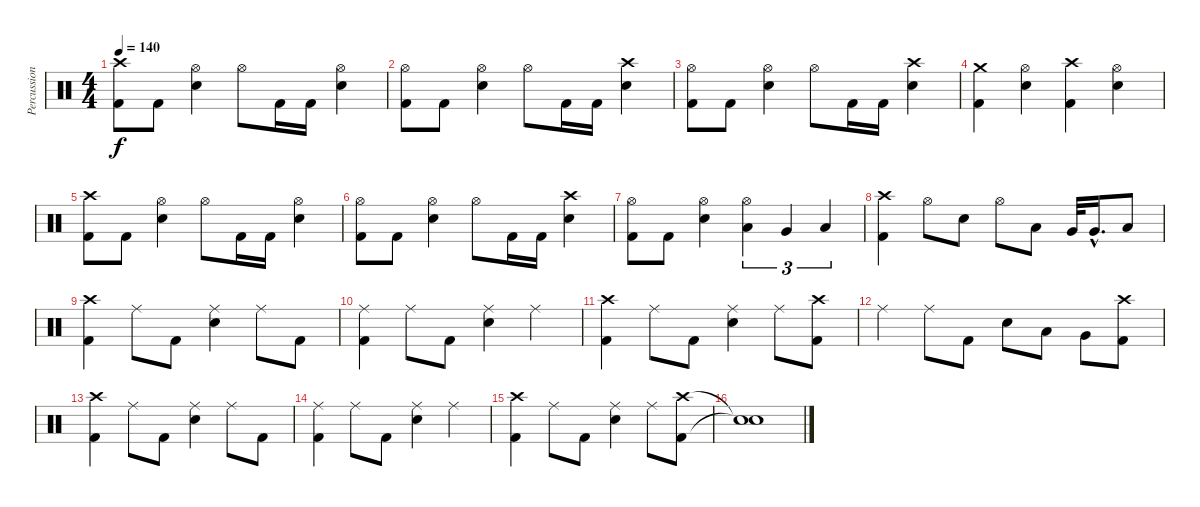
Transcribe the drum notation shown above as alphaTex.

\track ("Percussion" "Percussion") {instrument percussion}
\staff {score}
\articulation defaults
\ts (4 4)
\tempo 140
\clef neutral
\ks c
("Crash high (hit)" "Kick (hit) 2").8{dy f} "Kick (hit) 2".8 ("Hi-Hat (open)" "Snare (hit) 2").4 "Hi-Hat (open)".8 "Kick (hit) 2".16 "Kick (hit) 2".16 ("Hi-Hat (open)" "Snare (hit) 2").4 |
("Hi-Hat (open)" "Kick (hit) 2").8 "Kick (hit) 2".8 ("Hi-Hat (open)" "Snare (hit) 2").4 "Hi-Hat (open)".8 "Kick (hit) 2".16 "Kick (hit) 2".16 ("Crash high (hit)" "Snare (hit) 2").4 |
("Hi-Hat (open)" "Kick (hit) 2").8 "Kick (hit) 2".8 ("Hi-Hat (open)" "Snare (hit) 2").4 "Hi-Hat (open)".8 "Kick (hit) 2".16 "Kick (hit) 2".16 ("Crash high (hit)" "Snare (hit) 2").4 |
("Crash medium (hit)" "Kick (hit) 2").4 ("Hi-Hat (open)" "Snare (hit) 2").4 ("Crash high (hit)" "Kick (hit) 2").4 ("Hi-Hat (open)" "Snare (hit) 2").4 |
("Crash high (hit)" "Kick (hit) 2").8 "Kick (hit) 2".8 ("Hi-Hat (open)" "Snare (hit) 2").4 "Hi-Hat (open)".8 "Kick (hit) 2".16 "Kick (hit) 2".16 ("Hi-Hat (open)" "Snare (hit) 2").4 |
("Hi-Hat (open)" "Kick (hit) 2").8 "Kick (hit) 2".8 ("Hi-Hat (open)" "Snare (hit) 2").4 "Hi-Hat (open)".8 "Kick (hit) 2".16 "Kick (hit) 2".16 ("Crash high (hit)" "Snare (hit) 2").4 |
("Hi-Hat (open)" "Kick (hit) 2").8 "Kick (hit) 2".8 ("Hi-Hat (open)" "Snare (hit) 2").4 ("Hi-Hat (open)" "Low Tom (hit)").4{tu (3 2)} "Very Low Tom (hit)".4{tu (3 2)} "Low Floor Tom (hit)".4{tu (3 2)} |
("Crash high (hit)" "Kick (hit) 2").4 "Hi-Hat (open)".8 "Snare (hit) 2".8 "Hi-Hat (open)".8 "Low Tom (hit)".8 "Very Low Tom (hit)".32 "Very Low Tom (hit)"{hac}.16{d} "Low Floor Tom (hit)".8 |
("Crash high (hit)" "Kick (hit) 2").4 "Ride (middle)".8 "Kick (hit) 2".8 ("Ride (middle)" "Snare (hit) 2").4 "Ride (middle)".8 "Kick (hit) 2".8 |
("Ride (middle)" "Kick (hit) 2").4 "Ride (middle)".8 "Kick (hit) 2".8 ("Ride (middle)" "Snare (hit) 2").4 "Ride (middle)".4 |
("Crash high (hit)" "Kick (hit) 2").4 "Ride (middle)".8 "Kick (hit) 2".8 ("Ride (middle)" "Snare (hit) 2").4 "Ride (middle)".8 ("Crash high (hit)" "Kick (hit) 2").8 |
"Ride (middle)".4 "Ride (middle)".8 "Kick (hit) 2".8 "Snare (hit) 2".8 "Low Tom (hit)".8 "Very Low Tom (hit)".8 ("Crash high (hit)" "Kick (hit) 2").8 |
("Crash high (hit)" "Kick (hit) 2").4 "Ride (middle)".8 "Kick (hit) 2".8 ("Ride (middle)" "Snare (hit) 2").4 "Ride (middle)".8 "Kick (hit) 2".8 |
("Ride (middle)" "Kick (hit) 2").4 "Ride (middle)".8 "Kick (hit) 2".8 ("Ride (middle)" "Snare (hit) 2").4 "Ride (middle)".4 |
("Crash high (hit)" "Kick (hit) 2").4 "Ride (middle)".8 "Kick (hit) 2".8 ("Ride (middle)" "Snare (hit) 2").4 "Ride (middle)".8 ("Crash high (hit)" "Kick (hit) 2").8 |
("Snare (hit)"{t} "Snare (hit)"{t}).1
